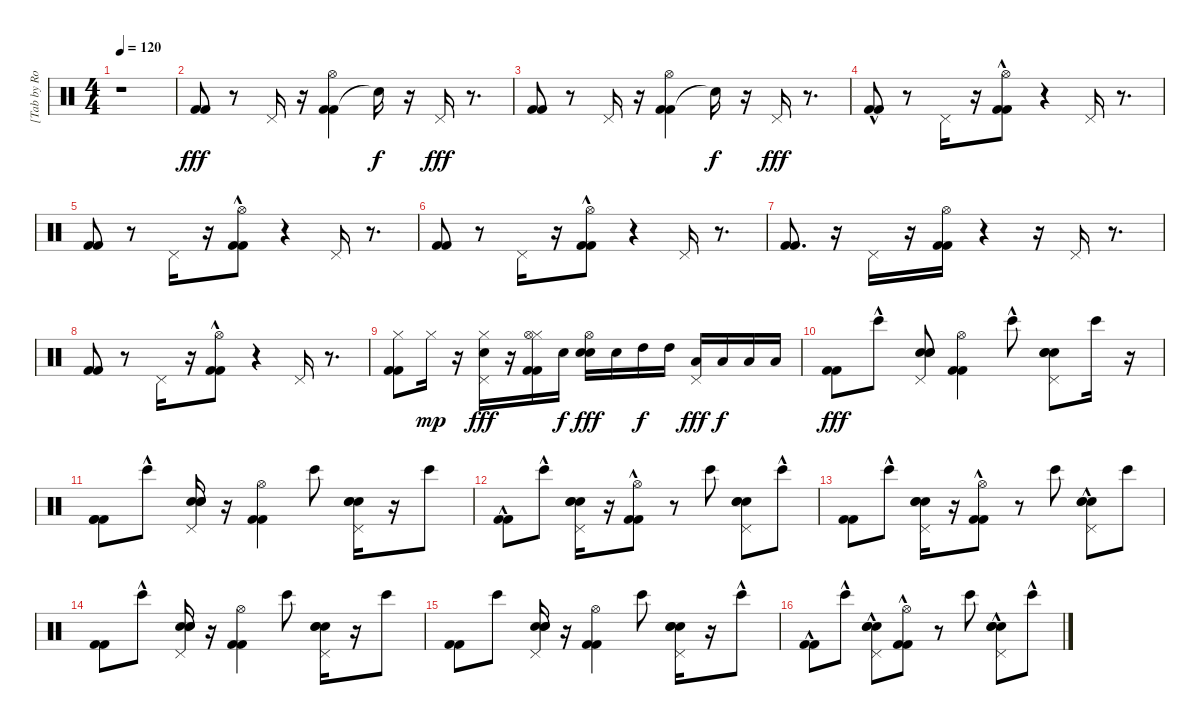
\track ("[Tab by Rodrigo Takahashi]" "[Tab by Ro") {instrument percussion}
\staff {score}
\articulation defaults
\ts (4 4)
\tempo 120
\clef neutral
\ks c
r.1{dy fff} |
("Kick (hit) 2" "Kick (hit) 2").8 r.8 "Pedal Hi-Hat (hit)".16 r.16 ("Kick (hit) 2" "Kick (hit) 2" "Hi-Hat (open)").4 "Snare (hit)"{t}.16{dy f} r.16 "Pedal Hi-Hat (hit)".16{dy fff} r.8{d} |
("Kick (hit) 2" "Kick (hit) 2").8 r.8 "Pedal Hi-Hat (hit)".16 r.16 ("Kick (hit) 2" "Kick (hit) 2" "Hi-Hat (open)").4 "Snare (hit)"{t}.16{dy f} r.16 "Pedal Hi-Hat (hit)".16{dy fff} r.8{d} |
("Kick (hit) 2"{hac} "Kick (hit) 2"{hac}).8 r.8 "Pedal Hi-Hat (hit)".16 r.16 ("Kick (hit) 2"{hac} "Kick (hit) 2"{hac} "Hi-Hat (open)").8 r.4 "Pedal Hi-Hat (hit)".16 r.8{d} |
("Kick (hit) 2" "Kick (hit) 2").8 r.8 "Pedal Hi-Hat (hit)".16 r.16 ("Kick (hit) 2"{hac} "Kick (hit) 2"{hac} "Hi-Hat (open)").8 r.4 "Pedal Hi-Hat (hit)".16 r.8{d} |
("Kick (hit) 2" "Kick (hit) 2").8 r.8 "Pedal Hi-Hat (hit)".16 r.16 ("Kick (hit) 2"{hac} "Kick (hit) 2"{hac} "Hi-Hat (open)").8 r.4 "Pedal Hi-Hat (hit)".16 r.8{d} |
("Kick (hit) 2" "Kick (hit) 2").8{d} r.16 "Pedal Hi-Hat (hit)".16 r.16 ("Kick (hit) 2" "Kick (hit) 2" "Hi-Hat (open)").16 r.4 r.16 "Pedal Hi-Hat (hit)".16 r.8{d} |
("Kick (hit) 2" "Kick (hit) 2").8 r.8 "Pedal Hi-Hat (hit)".16 r.16 ("Kick (hit) 2"{hac} "Kick (hit) 2"{hac} "Hi-Hat (open)").8 r.4 "Pedal Hi-Hat (hit)".16 r.8{d} |
("Hi-Hat (closed)" "Kick (hit) 2" "Kick (hit) 2").8 "Hi-Hat (closed)".16{dy mp} r.16 ("Hi-Hat (closed)" "Snare (hit) 2" "Pedal Hi-Hat (hit)").16{dy fff} r.16 ("Hi-Hat (closed)" "Kick (hit) 2" "Kick (hit) 2" "Hi-Hat (open)").16 "Snare (hit) 2".16{dy f} ("Snare (hit) 2" "Hi-Hat (open)" "Snare (hit) 2").16{dy fff} "Snare (hit) 2".16 "High Tom (hit)".16{dy f} "High Tom (hit)".16 ("Low Tom (hit)" "Pedal Hi-Hat (hit)").16{dy fff} "Low Tom (hit)".16{dy f} "Low Floor Tom (hit)".16 "Low Floor Tom (hit)".16 |
("Kick (hit) 2" "Kick (hit) 2").8{dy fff} "Bongo High (hit)"{hac}.8 ("Hand Clap (hit)" "Pedal Hi-Hat (hit)" "Electric Snare (hit)" "Snare (hit) 2").8 ("Kick (hit) 2" "Kick (hit) 2" "Hi-Hat (open)").4 "Bongo High (hit)"{hac}.8 ("Pedal Hi-Hat (hit)" "Electric Snare (hit)" "Snare (hit) 2" "Hand Clap (hit)").8 "Bongo High (hit)".16 r.16 |
("Kick (hit) 2" "Kick (hit) 2" "Kick (hit) 2").8 "Bongo High (hit)"{hac}.8 ("Pedal Hi-Hat (hit)" "Electric Snare (hit)" "Snare (hit) 2" "Hand Clap (hit)").16 r.16 ("Kick (hit) 2" "Kick (hit) 2" "Hi-Hat (open)").4 "Bongo High (hit)".8 ("Pedal Hi-Hat (hit)" "Electric Snare (hit)" "Snare (hit) 2" "Hand Clap (hit)").16 r.16 "Bongo High (hit)".8 |
("Kick (hit) 2"{hac} "Kick (hit) 2"{hac}).8 "Bongo High (hit)"{hac}.8 ("Pedal Hi-Hat (hit)" "Electric Snare (hit)" "Snare (hit) 2" "Hand Clap (hit)").16 r.16 ("Kick (hit) 2"{hac} "Kick (hit) 2"{hac} "Hi-Hat (open)").8 r.8 "Bongo High (hit)".8 ("Snare (hit) 2" "Pedal Hi-Hat (hit)" "Electric Snare (hit)" "Hand Clap (hit)").8 "Bongo High (hit)"{hac}.8 |
("Kick (hit) 2" "Kick (hit) 2").8 "Bongo High (hit)"{hac}.8 ("Pedal Hi-Hat (hit)" "Electric Snare (hit)" "Snare (hit) 2" "Hand Clap (hit)").16 r.16 ("Kick (hit) 2"{hac} "Kick (hit) 2"{hac} "Hi-Hat (open)").8 r.8 "Bongo High (hit)".8 ("Snare (hit) 2" "Pedal Hi-Hat (hit)" "Electric Snare (hit)"{hac} "Hand Clap (hit)").8 "Bongo High (hit)".8 |
("Kick (hit) 2" "Kick (hit) 2").8 "Bongo High (hit)"{hac}.8 ("Hand Clap (hit)" "Electric Snare (hit)" "Pedal Hi-Hat (hit)" "Snare (hit) 2").16 r.16 ("Kick (hit) 2" "Kick (hit) 2" "Hi-Hat (open)").4 "Bongo High (hit)".8 ("Pedal Hi-Hat (hit)" "Electric Snare (hit)" "Snare (hit) 2" "Hand Clap (hit)").16 r.16 "Bongo High (hit)".8 |
("Kick (hit) 2" "Kick (hit) 2").8 "Bongo High (hit)".8 ("Electric Snare (hit)" "Pedal Hi-Hat (hit)" "Snare (hit) 2" "Hand Clap (hit)").16 r.16 ("Kick (hit) 2" "Kick (hit) 2" "Hi-Hat (open)").4 "Bongo High (hit)".8 ("Snare (hit) 2" "Pedal Hi-Hat (hit)" "Electric Snare (hit)" "Hand Clap (hit)").16 r.16 "Bongo High (hit)"{hac}.8 |
("Kick (hit) 2"{hac} "Kick (hit) 2"{hac}).8 "Bongo High (hit)"{hac}.8 ("Hand Clap (hit)" "Snare (hit) 2" "Pedal Hi-Hat (hit)" "Electric Snare (hit)"{hac}).8 ("Kick (hit) 2"{hac} "Kick (hit) 2"{hac} "Hi-Hat (open)").8 r.8 "Bongo High (hit)".8 ("Pedal Hi-Hat (hit)" "Electric Snare (hit)"{hac} "Snare (hit) 2" "Hand Clap (hit)").8 "Bongo High (hit)"{hac}.8
